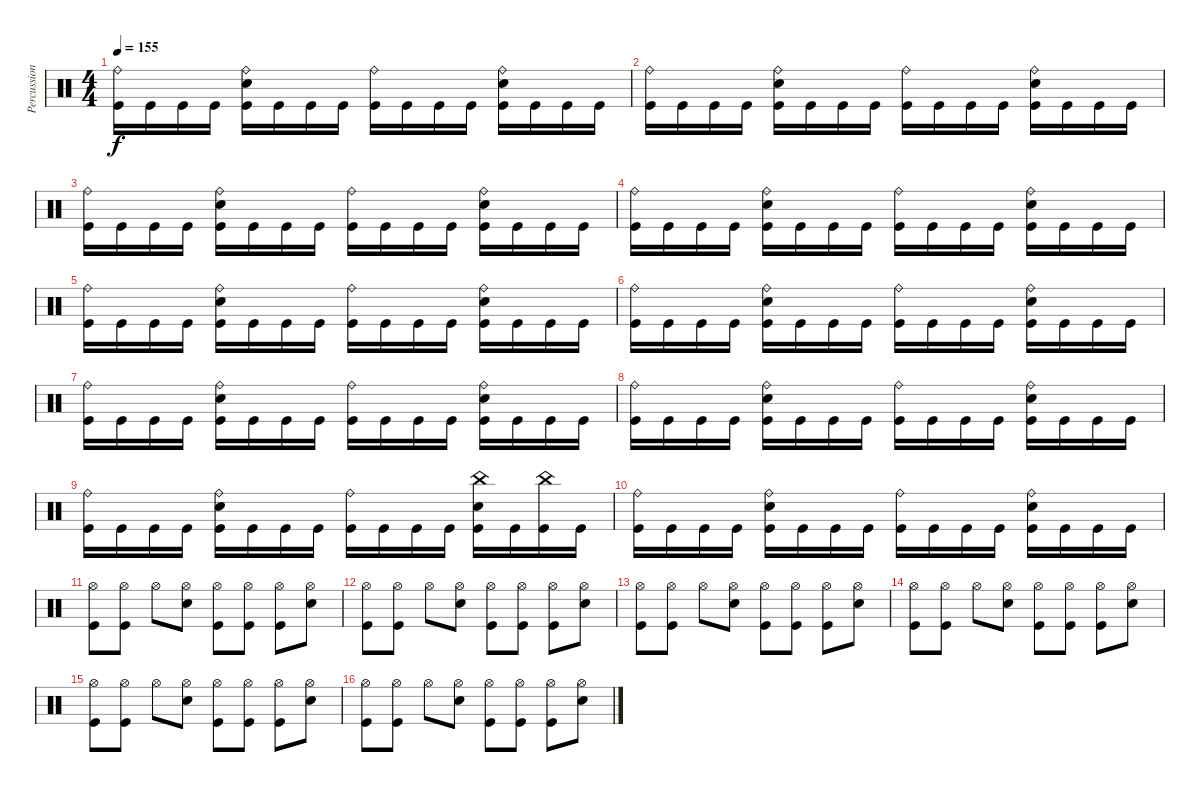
\track ("Percussion" "Percussion") {instrument percussion}
\staff {score}
\articulation defaults
\ts (4 4)
\tempo 155
\clef neutral
\ks c
("Ride (bell)" "Kick (hit)").16{dy f} "Kick (hit)".16 "Kick (hit)".16 "Kick (hit)".16 ("Ride (bell)" "Snare (hit) 2" "Kick (hit)").16 "Kick (hit)".16 "Kick (hit)".16 "Kick (hit)".16 ("Ride (bell)" "Kick (hit)").16 "Kick (hit)".16 "Kick (hit)".16 "Kick (hit)".16 ("Ride (bell)" "Snare (hit) 2" "Kick (hit)").16 "Kick (hit)".16 "Kick (hit)".16 "Kick (hit)".16 |
("Ride (bell)" "Kick (hit)").16 "Kick (hit)".16 "Kick (hit)".16 "Kick (hit)".16 ("Ride (bell)" "Snare (hit) 2" "Kick (hit)").16 "Kick (hit)".16 "Kick (hit)".16 "Kick (hit)".16 ("Ride (bell)" "Kick (hit)").16 "Kick (hit)".16 "Kick (hit)".16 "Kick (hit)".16 ("Ride (bell)" "Snare (hit) 2" "Kick (hit)").16 "Kick (hit)".16 "Kick (hit)".16 "Kick (hit)".16 |
("Ride (bell)" "Kick (hit)").16 "Kick (hit)".16 "Kick (hit)".16 "Kick (hit)".16 ("Ride (bell)" "Snare (hit) 2" "Kick (hit)").16 "Kick (hit)".16 "Kick (hit)".16 "Kick (hit)".16 ("Ride (bell)" "Kick (hit)").16 "Kick (hit)".16 "Kick (hit)".16 "Kick (hit)".16 ("Ride (bell)" "Snare (hit) 2" "Kick (hit)").16 "Kick (hit)".16 "Kick (hit)".16 "Kick (hit)".16 |
("Ride (bell)" "Kick (hit)").16 "Kick (hit)".16 "Kick (hit)".16 "Kick (hit)".16 ("Ride (bell)" "Snare (hit) 2" "Kick (hit)").16 "Kick (hit)".16 "Kick (hit)".16 "Kick (hit)".16 ("Ride (bell)" "Kick (hit)").16 "Kick (hit)".16 "Kick (hit)".16 "Kick (hit)".16 ("Ride (bell)" "Snare (hit) 2" "Kick (hit)").16 "Kick (hit)".16 "Kick (hit)".16 "Kick (hit)".16 |
("Ride (bell)" "Kick (hit)").16 "Kick (hit)".16 "Kick (hit)".16 "Kick (hit)".16 ("Ride (bell)" "Snare (hit) 2" "Kick (hit)").16 "Kick (hit)".16 "Kick (hit)".16 "Kick (hit)".16 ("Ride (bell)" "Kick (hit)").16 "Kick (hit)".16 "Kick (hit)".16 "Kick (hit)".16 ("Ride (bell)" "Snare (hit) 2" "Kick (hit)").16 "Kick (hit)".16 "Kick (hit)".16 "Kick (hit)".16 |
("Ride (bell)" "Kick (hit)").16 "Kick (hit)".16 "Kick (hit)".16 "Kick (hit)".16 ("Ride (bell)" "Snare (hit) 2" "Kick (hit)").16 "Kick (hit)".16 "Kick (hit)".16 "Kick (hit)".16 ("Ride (bell)" "Kick (hit)").16 "Kick (hit)".16 "Kick (hit)".16 "Kick (hit)".16 ("Ride (bell)" "Snare (hit) 2" "Kick (hit)").16 "Kick (hit)".16 "Kick (hit)".16 "Kick (hit)".16 |
("Ride (bell)" "Kick (hit)").16 "Kick (hit)".16 "Kick (hit)".16 "Kick (hit)".16 ("Ride (bell)" "Snare (hit) 2" "Kick (hit)").16 "Kick (hit)".16 "Kick (hit)".16 "Kick (hit)".16 ("Ride (bell)" "Kick (hit)").16 "Kick (hit)".16 "Kick (hit)".16 "Kick (hit)".16 ("Ride (bell)" "Snare (hit) 2" "Kick (hit)").16 "Kick (hit)".16 "Kick (hit)".16 "Kick (hit)".16 |
("Ride (bell)" "Kick (hit)").16 "Kick (hit)".16 "Kick (hit)".16 "Kick (hit)".16 ("Ride (bell)" "Snare (hit) 2" "Kick (hit)").16 "Kick (hit)".16 "Kick (hit)".16 "Kick (hit)".16 ("Ride (bell)" "Kick (hit)").16 "Kick (hit)".16 "Kick (hit)".16 "Kick (hit)".16 ("Ride (bell)" "Snare (hit) 2" "Kick (hit)").16 "Kick (hit)".16 "Kick (hit)".16 "Kick (hit)".16 |
("Ride (bell)" "Kick (hit)").16 "Kick (hit)".16 "Kick (hit)".16 "Kick (hit)".16 ("Ride (bell)" "Snare (hit) 2" "Kick (hit)").16 "Kick (hit)".16 "Kick (hit)".16 "Kick (hit)".16 ("Ride (bell)" "Kick (hit)").16 "Kick (hit)".16 "Kick (hit)".16 "Kick (hit)".16 ("China (hit)" "Snare (hit) 2" "Kick (hit)").16 "Kick (hit)".16 ("China (hit)" "Kick (hit)").16 "Kick (hit)".16 |
("Ride (bell)" "Kick (hit)").16 "Kick (hit)".16 "Kick (hit)".16 "Kick (hit)".16 ("Ride (bell)" "Snare (hit) 2" "Kick (hit)").16 "Kick (hit)".16 "Kick (hit)".16 "Kick (hit)".16 ("Ride (bell)" "Kick (hit)").16 "Kick (hit)".16 "Kick (hit)".16 "Kick (hit)".16 ("Ride (bell)" "Snare (hit) 2" "Kick (hit)").16 "Kick (hit)".16 "Kick (hit)".16 "Kick (hit)".16 |
("Hi-Hat (open)" "Kick (hit)").8 ("Hi-Hat (open)" "Kick (hit)").8 "Hi-Hat (open)".8 ("Hi-Hat (open)" "Snare (hit) 2").8 ("Hi-Hat (open)" "Kick (hit)").8 ("Hi-Hat (open)" "Kick (hit)").8 ("Hi-Hat (open)" "Kick (hit)").8 ("Hi-Hat (open)" "Snare (hit) 2").8 |
("Hi-Hat (open)" "Kick (hit)").8 ("Hi-Hat (open)" "Kick (hit)").8 "Hi-Hat (open)".8 ("Hi-Hat (open)" "Snare (hit) 2").8 ("Hi-Hat (open)" "Kick (hit)").8 ("Hi-Hat (open)" "Kick (hit)").8 ("Hi-Hat (open)" "Kick (hit)").8 ("Hi-Hat (open)" "Snare (hit) 2").8 |
("Hi-Hat (open)" "Kick (hit)").8 ("Hi-Hat (open)" "Kick (hit)").8 "Hi-Hat (open)".8 ("Hi-Hat (open)" "Snare (hit) 2").8 ("Hi-Hat (open)" "Kick (hit)").8 ("Hi-Hat (open)" "Kick (hit)").8 ("Hi-Hat (open)" "Kick (hit)").8 ("Hi-Hat (open)" "Snare (hit) 2").8 |
("Hi-Hat (open)" "Kick (hit)").8 ("Hi-Hat (open)" "Kick (hit)").8 "Hi-Hat (open)".8 ("Hi-Hat (open)" "Snare (hit) 2").8 ("Hi-Hat (open)" "Kick (hit)").8 ("Hi-Hat (open)" "Kick (hit)").8 ("Hi-Hat (open)" "Kick (hit)").8 ("Hi-Hat (open)" "Snare (hit) 2").8 |
("Hi-Hat (open)" "Kick (hit)").8 ("Hi-Hat (open)" "Kick (hit)").8 "Hi-Hat (open)".8 ("Hi-Hat (open)" "Snare (hit) 2").8 ("Hi-Hat (open)" "Kick (hit)").8 ("Hi-Hat (open)" "Kick (hit)").8 ("Hi-Hat (open)" "Kick (hit)").8 ("Hi-Hat (open)" "Snare (hit) 2").8 |
("Hi-Hat (open)" "Kick (hit)").8 ("Hi-Hat (open)" "Kick (hit)").8 "Hi-Hat (open)".8 ("Hi-Hat (open)" "Snare (hit) 2").8 ("Hi-Hat (open)" "Kick (hit)").8 ("Hi-Hat (open)" "Kick (hit)").8 ("Hi-Hat (open)" "Kick (hit)").8 ("Hi-Hat (open)" "Snare (hit) 2").8
